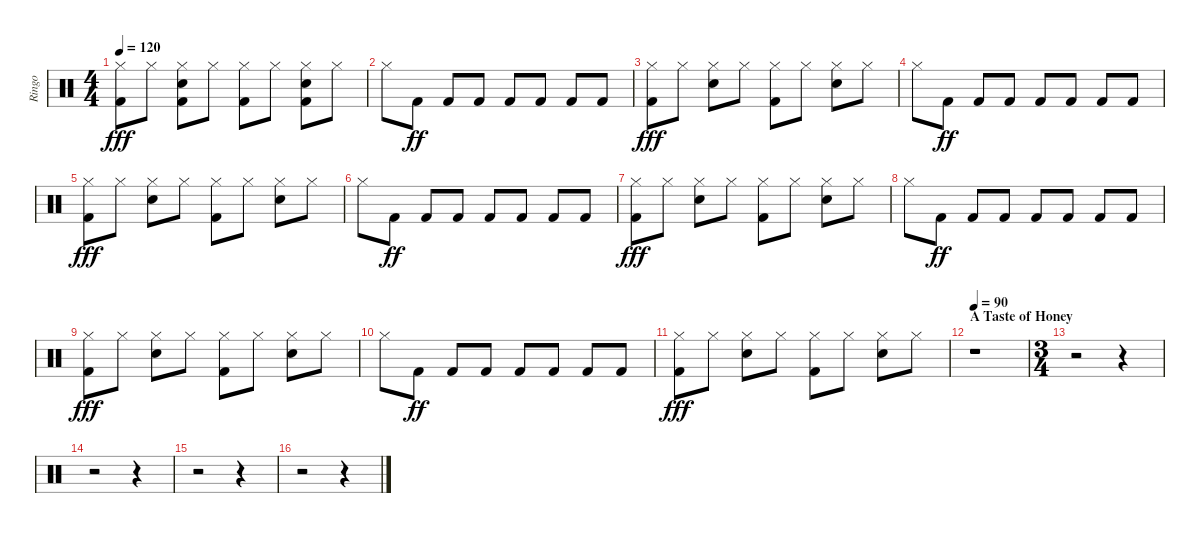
\track ("Ringo" "Ringo") {instrument percussion}
\staff {score}
\articulation defaults
\ts (4 4)
\tempo 120
\clef neutral
\ks c
("Hi-Hat (closed)" "Kick (hit) 2").8{dy fff} "Hi-Hat (closed)".8 ("Hi-Hat (closed)" "Snare (hit) 2" "Kick (hit) 2").8 "Hi-Hat (closed)".8 ("Hi-Hat (closed)" "Kick (hit) 2").8 "Hi-Hat (closed)".8 ("Hi-Hat (closed)" "Snare (hit) 2" "Kick (hit) 2").8 "Hi-Hat (closed)".8 |
"Hi-Hat (closed)".8 "Kick (hit) 2".8{dy ff} "Kick (hit) 2".8 "Kick (hit) 2".8 "Kick (hit) 2".8 "Kick (hit) 2".8 "Kick (hit) 2".8 "Kick (hit) 2".8 |
("Hi-Hat (closed)" "Kick (hit) 2").8{dy fff} "Hi-Hat (closed)".8 ("Hi-Hat (closed)" "Snare (hit) 2").8 "Hi-Hat (closed)".8 ("Hi-Hat (closed)" "Kick (hit) 2").8 "Hi-Hat (closed)".8 ("Hi-Hat (closed)" "Snare (hit) 2").8 "Hi-Hat (closed)".8 |
"Hi-Hat (closed)".8 "Kick (hit) 2".8{dy ff} "Kick (hit) 2".8 "Kick (hit) 2".8 "Kick (hit) 2".8 "Kick (hit) 2".8 "Kick (hit) 2".8 "Kick (hit) 2".8 |
("Hi-Hat (closed)" "Kick (hit) 2").8{dy fff} "Hi-Hat (closed)".8 ("Hi-Hat (closed)" "Snare (hit) 2").8 "Hi-Hat (closed)".8 ("Hi-Hat (closed)" "Kick (hit) 2").8 "Hi-Hat (closed)".8 ("Hi-Hat (closed)" "Snare (hit) 2").8 "Hi-Hat (closed)".8 |
"Hi-Hat (closed)".8 "Kick (hit) 2".8{dy ff} "Kick (hit) 2".8 "Kick (hit) 2".8 "Kick (hit) 2".8 "Kick (hit) 2".8 "Kick (hit) 2".8 "Kick (hit) 2".8 |
("Hi-Hat (closed)" "Kick (hit) 2").8{dy fff} "Hi-Hat (closed)".8 ("Hi-Hat (closed)" "Snare (hit) 2").8 "Hi-Hat (closed)".8 ("Hi-Hat (closed)" "Kick (hit) 2").8 "Hi-Hat (closed)".8 ("Hi-Hat (closed)" "Snare (hit) 2").8 "Hi-Hat (closed)".8 |
"Hi-Hat (closed)".8 "Kick (hit) 2".8{dy ff} "Kick (hit) 2".8 "Kick (hit) 2".8 "Kick (hit) 2".8 "Kick (hit) 2".8 "Kick (hit) 2".8 "Kick (hit) 2".8 |
("Hi-Hat (closed)" "Kick (hit) 2").8{dy fff} "Hi-Hat (closed)".8 ("Hi-Hat (closed)" "Snare (hit) 2").8 "Hi-Hat (closed)".8 ("Hi-Hat (closed)" "Kick (hit) 2").8 "Hi-Hat (closed)".8 ("Hi-Hat (closed)" "Snare (hit) 2").8 "Hi-Hat (closed)".8 |
"Hi-Hat (closed)".8 "Kick (hit) 2".8{dy ff} "Kick (hit) 2".8 "Kick (hit) 2".8 "Kick (hit) 2".8 "Kick (hit) 2".8 "Kick (hit) 2".8 "Kick (hit) 2".8 |
("Hi-Hat (closed)" "Kick (hit) 2").8{dy fff} "Hi-Hat (closed)".8 ("Hi-Hat (closed)" "Snare (hit) 2").8 "Hi-Hat (closed)".8 ("Hi-Hat (closed)" "Kick (hit) 2").8 "Hi-Hat (closed)".8 ("Hi-Hat (closed)" "Snare (hit) 2").8 "Hi-Hat (closed)".8 |
\section ("" "A Taste of Honey")
\tempo 90
r.1{volume 12 balance 8} |
\ts (3 4)
r.2 r.4 |
r.2 r.4 |
r.2 r.4 |
r.2 r.4
